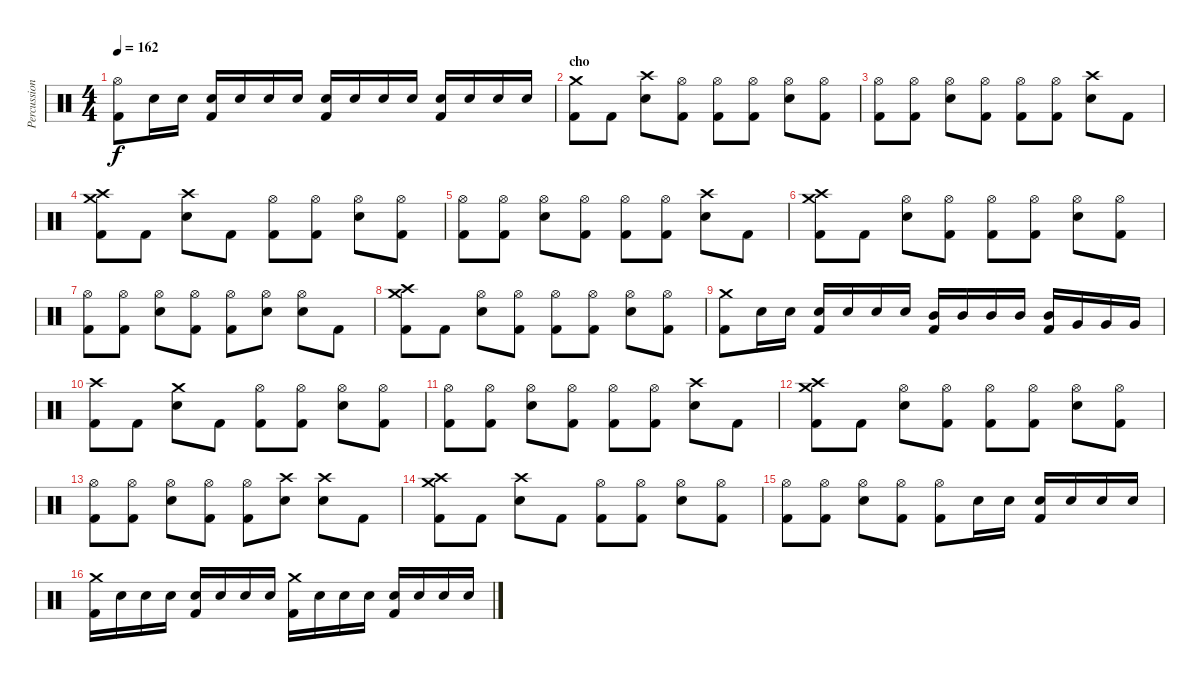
\track ("Percussion" "Percussion") {instrument percussion}
\staff {score}
\articulation defaults
\ts (4 4)
\tempo 162
\clef neutral
\ks c
("Kick (hit) 2" "Hi-Hat (open)").8{dy f} "Snare (hit) 2".16 "Snare (hit) 2".16 ("Kick (hit) 2" "Snare (hit) 2").16 "Snare (hit) 2".16 "Snare (hit) 2".16 "Snare (hit) 2".16 ("Kick (hit) 2" "Snare (hit) 2").16 "Snare (hit) 2".16 "Snare (hit) 2".16 "Snare (hit) 2".16 ("Kick (hit) 2" "Snare (hit) 2").16 "Snare (hit) 2".16 "Snare (hit) 2".16 "Snare (hit) 2".16 |
\section ("" "cho")
("Kick (hit) 2" "Crash medium (hit)").8 "Kick (hit) 2".8 ("Snare (hit) 2" "Crash high (hit)").8 ("Kick (hit) 2" "Hi-Hat (open)").8 ("Kick (hit) 2" "Hi-Hat (open)").8 ("Kick (hit) 2" "Hi-Hat (open)").8 ("Snare (hit) 2" "Hi-Hat (open)").8 ("Kick (hit) 2" "Hi-Hat (open)").8 |
("Kick (hit) 2" "Hi-Hat (open)").8 ("Kick (hit) 2" "Hi-Hat (open)").8 ("Snare (hit) 2" "Hi-Hat (open)").8 ("Kick (hit) 2" "Hi-Hat (open)").8 ("Kick (hit) 2" "Hi-Hat (open)").8 ("Kick (hit) 2" "Hi-Hat (open)").8 ("Snare (hit) 2" "Crash high (hit)").8 "Kick (hit) 2".8 |
("Kick (hit) 2" "Crash medium (hit)" "Crash high (hit)").8 "Kick (hit) 2".8 ("Snare (hit) 2" "Crash high (hit)").8 "Kick (hit) 2".8 ("Kick (hit) 2" "Hi-Hat (open)").8 ("Kick (hit) 2" "Hi-Hat (open)").8 ("Snare (hit) 2" "Hi-Hat (open)").8 ("Kick (hit) 2" "Hi-Hat (open)").8 |
("Kick (hit) 2" "Hi-Hat (open)").8 ("Kick (hit) 2" "Hi-Hat (open)").8 ("Snare (hit) 2" "Hi-Hat (open)").8 ("Kick (hit) 2" "Hi-Hat (open)").8 ("Kick (hit) 2" "Hi-Hat (open)").8 ("Kick (hit) 2" "Hi-Hat (open)").8 ("Snare (hit) 2" "Crash high (hit)").8 "Kick (hit) 2".8 |
("Kick (hit) 2" "Crash medium (hit)" "Crash high (hit)").8 "Kick (hit) 2".8 ("Snare (hit) 2" "Hi-Hat (open)").8 ("Kick (hit) 2" "Hi-Hat (open)").8 ("Kick (hit) 2" "Hi-Hat (open)").8 ("Kick (hit) 2" "Hi-Hat (open)").8 ("Snare (hit) 2" "Hi-Hat (open)").8 ("Kick (hit) 2" "Hi-Hat (open)").8 |
("Kick (hit) 2" "Hi-Hat (open)").8 ("Kick (hit) 2" "Hi-Hat (open)").8 ("Snare (hit) 2" "Hi-Hat (open)").8 ("Kick (hit) 2" "Hi-Hat (open)").8 ("Kick (hit) 2" "Hi-Hat (open)").8 ("Snare (hit) 2" "Hi-Hat (open)").8 ("Snare (hit) 2" "Hi-Hat (open)").8 "Kick (hit) 2".8 |
("Kick (hit) 2" "Crash medium (hit)" "Crash high (hit)").8 "Kick (hit) 2".8 ("Snare (hit) 2" "Hi-Hat (open)").8 ("Kick (hit) 2" "Hi-Hat (open)").8 ("Kick (hit) 2" "Hi-Hat (open)").8 ("Kick (hit) 2" "Hi-Hat (open)").8 ("Snare (hit) 2" "Hi-Hat (open)").8 ("Kick (hit) 2" "Hi-Hat (open)").8 |
("Kick (hit) 2" "Crash medium (hit)").8 "Snare (hit) 2".16 "Snare (hit) 2".16 ("Kick (hit) 2" "Snare (hit) 2").16 "Snare (hit) 2".16 "Snare (hit) 2".16 "Snare (hit) 2".16 ("Kick (hit) 2" "Mid Tom (hit)").16 "Mid Tom (hit)".16 "Mid Tom (hit)".16 "Mid Tom (hit)".16 ("Kick (hit) 2" "Mid Tom (hit)").16 "Very Low Tom (hit)".16 "Very Low Tom (hit)".16 "Very Low Tom (hit)".16 |
("Kick (hit) 2" "Crash high (hit)").8 "Kick (hit) 2".8 ("Snare (hit) 2" "Crash medium (hit)").8 "Kick (hit) 2".8 ("Kick (hit) 2" "Hi-Hat (open)").8 ("Kick (hit) 2" "Hi-Hat (open)").8 ("Snare (hit) 2" "Hi-Hat (open)").8 ("Kick (hit) 2" "Hi-Hat (open)").8 |
("Kick (hit) 2" "Hi-Hat (open)").8 ("Kick (hit) 2" "Hi-Hat (open)").8 ("Snare (hit) 2" "Hi-Hat (open)").8 ("Kick (hit) 2" "Hi-Hat (open)").8 ("Kick (hit) 2" "Hi-Hat (open)").8 ("Kick (hit) 2" "Hi-Hat (open)").8 ("Snare (hit) 2" "Crash high (hit)").8 "Kick (hit) 2".8 |
("Kick (hit) 2" "Crash medium (hit)" "Crash high (hit)").8 "Kick (hit) 2".8 ("Snare (hit) 2" "Hi-Hat (open)").8 ("Kick (hit) 2" "Hi-Hat (open)").8 ("Kick (hit) 2" "Hi-Hat (open)").8 ("Kick (hit) 2" "Hi-Hat (open)").8 ("Snare (hit) 2" "Hi-Hat (open)").8 ("Kick (hit) 2" "Hi-Hat (open)").8 |
("Kick (hit) 2" "Hi-Hat (open)").8 ("Kick (hit) 2" "Hi-Hat (open)").8 ("Snare (hit) 2" "Hi-Hat (open)").8 ("Kick (hit) 2" "Hi-Hat (open)").8 ("Kick (hit) 2" "Hi-Hat (open)").8 ("Snare (hit) 2" "Crash high (hit)").8 ("Snare (hit) 2" "Crash high (hit)").8 "Kick (hit) 2".8 |
("Kick (hit) 2" "Crash high (hit)" "Crash medium (hit)").8 "Kick (hit) 2".8 ("Snare (hit) 2" "Crash high (hit)").8 "Kick (hit) 2".8 ("Kick (hit) 2" "Hi-Hat (open)").8 ("Kick (hit) 2" "Hi-Hat (open)").8 ("Snare (hit) 2" "Hi-Hat (open)").8 ("Kick (hit) 2" "Hi-Hat (open)").8 |
("Kick (hit) 2" "Hi-Hat (open)").8 ("Kick (hit) 2" "Hi-Hat (open)").8 ("Snare (hit) 2" "Hi-Hat (open)").8 ("Kick (hit) 2" "Hi-Hat (open)").8 ("Kick (hit) 2" "Hi-Hat (open)").8 "Snare (hit) 2".16 "Snare (hit) 2".16 ("Kick (hit) 2" "Snare (hit) 2").16 "Snare (hit) 2".16 "Snare (hit) 2".16 "Snare (hit) 2".16 |
("Kick (hit) 2" "Crash medium (hit)").16 "Snare (hit) 2".16 "Snare (hit) 2".16 "Snare (hit) 2".16 ("Kick (hit) 2" "Snare (hit) 2").16 "Snare (hit) 2".16 "Snare (hit) 2".16 "Snare (hit) 2".16 ("Kick (hit) 2" "Crash medium (hit)").16 "Snare (hit) 2".16 "Snare (hit) 2".16 "Snare (hit) 2".16 ("Kick (hit) 2" "Snare (hit) 2").16 "Snare (hit) 2".16 "Snare (hit) 2".16 "Snare (hit) 2".16
